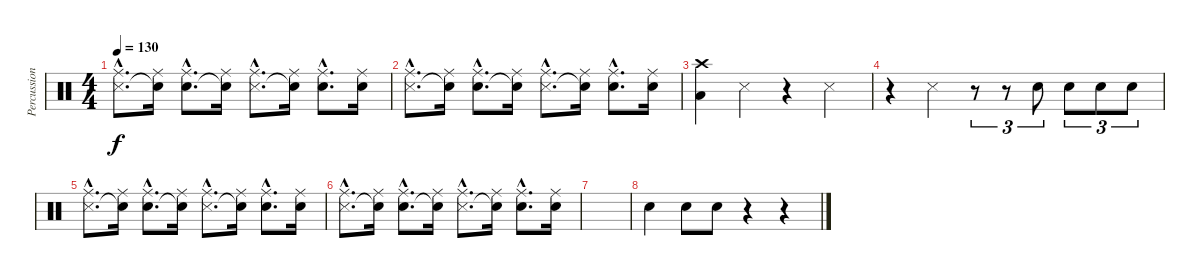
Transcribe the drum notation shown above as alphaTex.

\track ("Percussion" "Percussion") {instrument percussion}
\staff {score}
\articulation defaults
\ts (4 4)
\tempo 130
\clef neutral
\ks c
("Ride (middle)"{hac} "Snare (side stick) 3"{hac}).8{d dy f} ("Ride (middle)" "Snare (hit)"{t}).16 ("Ride (middle)"{hac} "Electric Snare (hit)"{hac}).8{d} ("Ride (middle)" "Snare (hit)"{t}).16 ("Ride (middle)"{hac} "Snare (side stick) 3"{hac}).8{d} ("Ride (middle)" "Snare (hit)"{t}).16 ("Ride (middle)"{hac} "Electric Snare (hit)"{hac}).8{d} ("Ride (middle)" "Electric Snare (hit)").16 |
("Ride (middle)"{hac} "Snare (side stick) 3"{hac}).8{d} ("Ride (middle)" "Snare (hit)"{t}).16 ("Ride (middle)"{hac} "Electric Snare (hit)"{hac}).8{d} ("Ride (middle)" "Snare (hit)"{t}).16 ("Ride (middle)"{hac} "Snare (side stick) 3"{hac}).8{d} ("Ride (middle)" "Snare (hit)"{t}).16 ("Ride (middle)"{hac} "Electric Snare (hit)"{hac}).8{d} ("Ride (middle)" "Electric Snare (hit)").16 |
("Crash high (hit)" "Low Tom (hit)").4 "Snare (side stick) 3".4 r.4 "Snare (side stick) 3".4 |
r.4 "Snare (side stick) 3".4 r.8{tu (3 2)} r.8{tu (3 2)} "Snare (hit) 2".8{tu (3 2)} "Electric Snare (hit)".8{tu (3 2)} "Electric Snare (hit)".8{tu (3 2)} "Electric Snare (hit)".8{tu (3 2)} |
("Ride (middle)"{hac} "Snare (side stick) 3"{hac}).8{d} ("Ride (middle)" "Snare (hit)"{t}).16 ("Ride (middle)"{hac} "Electric Snare (hit)"{hac}).8{d} ("Ride (middle)" "Snare (hit)"{t}).16 ("Ride (middle)"{hac} "Snare (side stick) 3"{hac}).8{d} ("Ride (middle)" "Snare (hit)"{t}).16 ("Ride (middle)"{hac} "Electric Snare (hit)"{hac}).8{d} ("Ride (middle)" "Electric Snare (hit)").16 |
("Ride (middle)"{hac} "Snare (side stick) 3"{hac}).8{d} ("Ride (middle)" "Snare (hit)"{t}).16 ("Ride (middle)"{hac} "Electric Snare (hit)"{hac}).8{d} ("Ride (middle)" "Snare (hit)"{t}).16 ("Ride (middle)"{hac} "Snare (side stick) 3"{hac}).8{d} ("Ride (middle)" "Snare (hit)"{t}).16 ("Ride (middle)"{hac} "Electric Snare (hit)"{hac}).8{d} ("Ride (middle)" "Electric Snare (hit)").16 |
|
"Electric Snare (hit)".4 "Electric Snare (hit)".8 "Electric Snare (hit)".8 r.4 r.4
